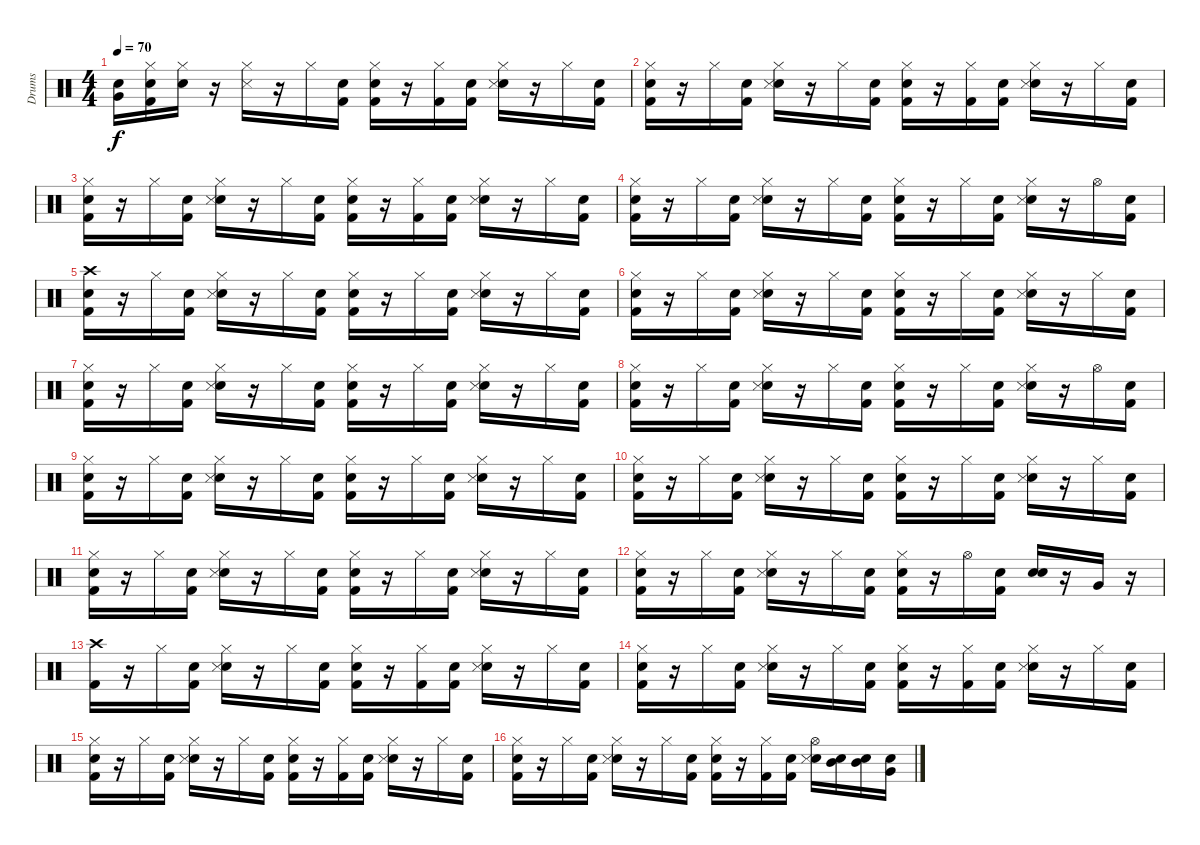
\track ("Drums" "Drums") {instrument percussion}
\staff {score}
\articulation defaults
\ts (4 4)
\tempo 70
\clef neutral
\ks c
("Snare (hit)" "Very Low Tom (hit)").16{dy f} ("Snare (hit)" "Kick (hit) 2" "Hi-Hat (closed)").16 ("Snare (hit)" "Hi-Hat (closed)").16 r.16 ("Snare (side stick) 3" "Hi-Hat (closed)").16 r.16 "Hi-Hat (closed)".16 ("Snare (hit)" "Kick (hit) 2").16 ("Snare (hit)" "Kick (hit) 2" "Hi-Hat (closed)").16 r.16 ("Kick (hit) 2" "Hi-Hat (closed)").16 ("Snare (hit)" "Kick (hit) 2").16 ("Snare (hit)" "Snare (side stick) 3" "Hi-Hat (closed)").16 r.16 "Hi-Hat (closed)".16 ("Snare (hit)" "Kick (hit) 2").16 |
("Snare (hit)" "Kick (hit) 2" "Hi-Hat (closed)").16 r.16 "Hi-Hat (closed)".16 ("Snare (hit)" "Kick (hit) 2").16 ("Snare (hit)" "Snare (side stick) 3" "Hi-Hat (closed)").16 r.16 "Hi-Hat (closed)".16 ("Snare (hit)" "Kick (hit) 2").16 ("Snare (hit)" "Kick (hit) 2" "Hi-Hat (closed)").16 r.16 ("Kick (hit) 2" "Hi-Hat (closed)").16 ("Snare (hit)" "Kick (hit) 2").16 ("Snare (hit)" "Snare (side stick) 3" "Hi-Hat (closed)").16 r.16 "Hi-Hat (closed)".16 ("Snare (hit)" "Kick (hit) 2").16 |
("Snare (hit)" "Kick (hit) 2" "Hi-Hat (closed)").16 r.16 "Hi-Hat (closed)".16 ("Snare (hit)" "Kick (hit) 2").16 ("Snare (hit)" "Snare (side stick) 3" "Hi-Hat (closed)").16 r.16 "Hi-Hat (closed)".16 ("Snare (hit)" "Kick (hit) 2").16 ("Snare (hit)" "Kick (hit) 2" "Hi-Hat (closed)").16 r.16 ("Kick (hit) 2" "Hi-Hat (closed)").16 ("Snare (hit)" "Kick (hit) 2").16 ("Snare (hit)" "Snare (side stick) 3" "Hi-Hat (closed)").16 r.16 "Hi-Hat (closed)".16 ("Snare (hit)" "Kick (hit) 2").16 |
("Snare (hit)" "Kick (hit) 2" "Hi-Hat (closed)").16 r.16 "Hi-Hat (closed)".16 ("Snare (hit)" "Kick (hit) 2").16 ("Snare (hit)" "Snare (side stick) 3" "Hi-Hat (closed)").16 r.16 "Hi-Hat (closed)".16 ("Snare (hit)" "Kick (hit) 2").16 ("Snare (hit)" "Kick (hit) 2" "Hi-Hat (closed)").16 r.16 "Hi-Hat (closed)".16 ("Snare (hit)" "Kick (hit) 2").16 ("Snare (hit)" "Snare (side stick) 3" "Hi-Hat (closed)").16 r.16 "Hi-Hat (open)".16 ("Snare (hit)" "Kick (hit) 2").16 |
("Snare (hit)" "Kick (hit) 2" "Crash high (hit)").16 r.16 "Hi-Hat (closed)".16 ("Snare (hit)" "Kick (hit) 2").16 ("Snare (hit)" "Snare (side stick) 3" "Hi-Hat (closed)").16 r.16 "Hi-Hat (closed)".16 ("Snare (hit)" "Kick (hit) 2").16 ("Snare (hit)" "Kick (hit) 2" "Hi-Hat (closed)").16 r.16 "Hi-Hat (closed)".16 ("Snare (hit)" "Kick (hit) 2").16 ("Snare (hit)" "Snare (side stick) 3" "Hi-Hat (closed)").16 r.16 "Hi-Hat (closed)".16 ("Snare (hit)" "Kick (hit) 2").16 |
("Snare (hit)" "Kick (hit) 2" "Hi-Hat (closed)").16 r.16 "Hi-Hat (closed)".16 ("Snare (hit)" "Kick (hit) 2").16 ("Snare (hit)" "Snare (side stick) 3" "Hi-Hat (closed)").16 r.16 "Hi-Hat (closed)".16 ("Snare (hit)" "Kick (hit) 2").16 ("Snare (hit)" "Kick (hit) 2" "Hi-Hat (closed)").16 r.16 "Hi-Hat (closed)".16 ("Snare (hit)" "Kick (hit) 2").16 ("Snare (hit)" "Snare (side stick) 3" "Hi-Hat (closed)").16 r.16 "Hi-Hat (closed)".16 ("Snare (hit)" "Kick (hit) 2").16 |
("Snare (hit)" "Kick (hit) 2" "Hi-Hat (closed)").16 r.16 "Hi-Hat (closed)".16 ("Snare (hit)" "Kick (hit) 2").16 ("Snare (hit)" "Snare (side stick) 3" "Hi-Hat (closed)").16 r.16 "Hi-Hat (closed)".16 ("Snare (hit)" "Kick (hit) 2").16 ("Snare (hit)" "Kick (hit) 2" "Hi-Hat (closed)").16 r.16 "Hi-Hat (closed)".16 ("Snare (hit)" "Kick (hit) 2").16 ("Snare (hit)" "Snare (side stick) 3" "Hi-Hat (closed)").16 r.16 "Hi-Hat (closed)".16 ("Snare (hit)" "Kick (hit) 2").16 |
("Snare (hit)" "Kick (hit) 2" "Hi-Hat (closed)").16 r.16 "Hi-Hat (closed)".16 ("Snare (hit)" "Kick (hit) 2").16 ("Snare (hit)" "Snare (side stick) 3" "Hi-Hat (closed)").16 r.16 "Hi-Hat (closed)".16 ("Snare (hit)" "Kick (hit) 2").16 ("Snare (hit)" "Kick (hit) 2" "Hi-Hat (closed)").16 r.16 "Hi-Hat (closed)".16 ("Snare (hit)" "Kick (hit) 2").16 ("Snare (hit)" "Snare (side stick) 3" "Hi-Hat (closed)").16 r.16 "Hi-Hat (open)".16 ("Snare (hit)" "Kick (hit) 2").16 |
("Snare (hit)" "Kick (hit) 2" "Hi-Hat (closed)").16 r.16 "Hi-Hat (closed)".16 ("Snare (hit)" "Kick (hit) 2").16 ("Snare (hit)" "Snare (side stick) 3" "Hi-Hat (closed)").16 r.16 "Hi-Hat (closed)".16 ("Snare (hit)" "Kick (hit) 2").16 ("Snare (hit)" "Kick (hit) 2" "Hi-Hat (closed)").16 r.16 "Hi-Hat (closed)".16 ("Snare (hit)" "Kick (hit) 2").16 ("Snare (hit)" "Snare (side stick) 3" "Hi-Hat (closed)").16 r.16 "Hi-Hat (closed)".16 ("Snare (hit)" "Kick (hit) 2").16 |
("Snare (hit)" "Kick (hit) 2" "Hi-Hat (closed)").16 r.16 "Hi-Hat (closed)".16 ("Snare (hit)" "Kick (hit) 2").16 ("Snare (hit)" "Snare (side stick) 3" "Hi-Hat (closed)").16 r.16 "Hi-Hat (closed)".16 ("Snare (hit)" "Kick (hit) 2").16 ("Snare (hit)" "Kick (hit) 2" "Hi-Hat (closed)").16 r.16 "Hi-Hat (closed)".16 ("Snare (hit)" "Kick (hit) 2").16 ("Snare (hit)" "Snare (side stick) 3" "Hi-Hat (closed)").16 r.16 "Hi-Hat (closed)".16 ("Snare (hit)" "Kick (hit) 2").16 |
("Snare (hit)" "Kick (hit) 2" "Hi-Hat (closed)").16 r.16 "Hi-Hat (closed)".16 ("Snare (hit)" "Kick (hit) 2").16 ("Snare (hit)" "Snare (side stick) 3" "Hi-Hat (closed)").16 r.16 "Hi-Hat (closed)".16 ("Snare (hit)" "Kick (hit) 2").16 ("Snare (hit)" "Kick (hit) 2" "Hi-Hat (closed)").16 r.16 "Hi-Hat (closed)".16 ("Snare (hit)" "Kick (hit) 2").16 ("Snare (hit)" "Snare (side stick) 3" "Hi-Hat (closed)").16 r.16 "Hi-Hat (closed)".16 ("Snare (hit)" "Kick (hit) 2").16 |
("Snare (hit)" "Kick (hit) 2" "Hi-Hat (closed)").16 r.16 "Hi-Hat (closed)".16 ("Snare (hit)" "Kick (hit) 2").16 ("Snare (hit)" "Snare (side stick) 3" "Hi-Hat (closed)").16 r.16 "Hi-Hat (closed)".16 ("Snare (hit)" "Kick (hit) 2").16 ("Snare (hit)" "Kick (hit) 2" "Hi-Hat (closed)").16 r.16 "Hi-Hat (open)".16 ("Snare (hit)" "Kick (hit) 2").16 ("Snare (hit)" "Snare (hit) 2").16 r.16 "Very Low Tom (hit)".16 r.16 |
("Kick (hit) 2" "Crash high (hit)").16 r.16 "Hi-Hat (closed)".16 ("Snare (hit)" "Kick (hit) 2").16 ("Snare (hit)" "Snare (side stick) 3" "Hi-Hat (closed)").16 r.16 "Hi-Hat (closed)".16 ("Snare (hit)" "Kick (hit) 2").16 ("Snare (hit)" "Kick (hit) 2" "Hi-Hat (closed)").16 r.16 ("Kick (hit) 2" "Hi-Hat (closed)").16 ("Snare (hit)" "Kick (hit) 2").16 ("Snare (hit)" "Snare (side stick) 3" "Hi-Hat (closed)").16 r.16 "Hi-Hat (closed)".16 ("Snare (hit)" "Kick (hit) 2").16 |
("Snare (hit)" "Kick (hit) 2" "Hi-Hat (closed)").16 r.16 "Hi-Hat (closed)".16 ("Snare (hit)" "Kick (hit) 2").16 ("Snare (hit)" "Snare (side stick) 3" "Hi-Hat (closed)").16 r.16 "Hi-Hat (closed)".16 ("Snare (hit)" "Kick (hit) 2").16 ("Snare (hit)" "Kick (hit) 2" "Hi-Hat (closed)").16 r.16 ("Kick (hit) 2" "Hi-Hat (closed)").16 ("Snare (hit)" "Kick (hit) 2").16 ("Snare (hit)" "Snare (side stick) 3" "Hi-Hat (closed)").16 r.16 "Hi-Hat (closed)".16 ("Snare (hit)" "Kick (hit) 2").16 |
("Snare (hit)" "Kick (hit) 2" "Hi-Hat (closed)").16 r.16 "Hi-Hat (closed)".16 ("Snare (hit)" "Kick (hit) 2").16 ("Snare (hit)" "Snare (side stick) 3" "Hi-Hat (closed)").16 r.16 "Hi-Hat (closed)".16 ("Snare (hit)" "Kick (hit) 2").16 ("Snare (hit)" "Kick (hit) 2" "Hi-Hat (closed)").16 r.16 ("Kick (hit) 2" "Hi-Hat (closed)").16 ("Snare (hit)" "Kick (hit) 2").16 ("Snare (hit)" "Snare (side stick) 3" "Hi-Hat (closed)").16 r.16 "Hi-Hat (closed)".16 ("Snare (hit)" "Kick (hit) 2").16 |
("Snare (hit)" "Kick (hit) 2" "Hi-Hat (closed)").16 r.16 "Hi-Hat (closed)".16 ("Snare (hit)" "Kick (hit) 2").16 ("Snare (hit)" "Snare (side stick) 3" "Hi-Hat (closed)").16 r.16 "Hi-Hat (closed)".16 ("Snare (hit)" "Kick (hit) 2").16 ("Snare (hit)" "Kick (hit) 2" "Hi-Hat (closed)").16 r.16 ("Kick (hit) 2" "Hi-Hat (closed)").16 ("Snare (hit)" "Kick (hit) 2").16 ("Snare (hit)" "Snare (side stick) 3" "Hi-Hat (open)").16 ("Snare (hit)" "Mid Tom (hit)").16 ("Snare (hit)" "Mid Tom (hit)").16 ("Snare (hit)" "Very Low Tom (hit)").16
